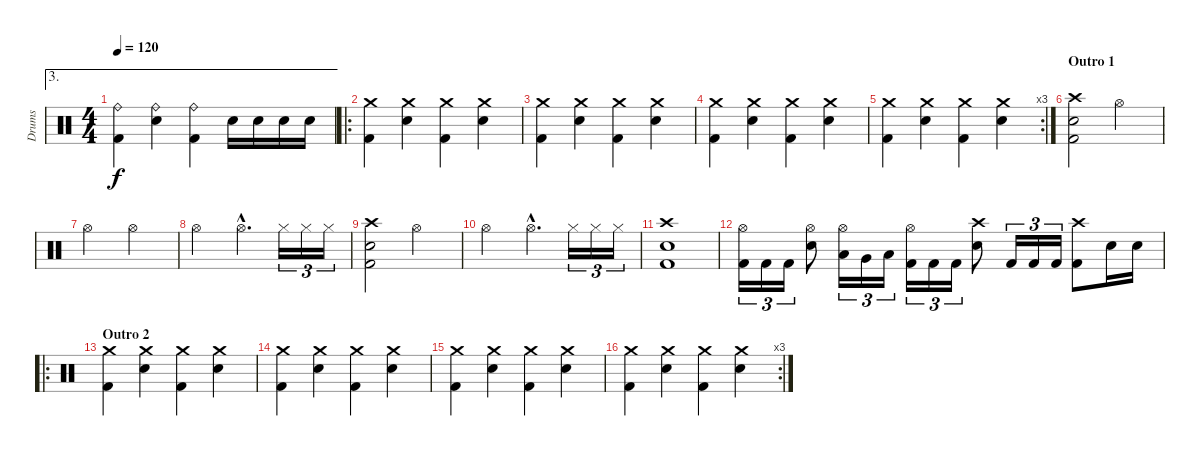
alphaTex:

\track ("Drums" "Drums") {instrument percussion}
\staff {score}
\articulation defaults
\ae 3
\ts (4 4)
\tempo 120
\clef neutral
\ks c
("Ride (bell)" "Kick (hit) 2").4{dy f} ("Ride (bell)" "Electric Snare (hit)").4 ("Ride (bell)" "Kick (hit) 2").4 "Electric Snare (hit)".16 "Electric Snare (hit)".16 "Electric Snare (hit)".16 "Electric Snare (hit)".16 |
\ro
("Crash medium (hit)" "Kick (hit) 2").4 ("Crash medium (hit)" "Electric Snare (hit)").4 ("Crash medium (hit)" "Kick (hit) 2").4 ("Crash medium (hit)" "Electric Snare (hit)").4 |
("Crash medium (hit)" "Kick (hit) 2").4 ("Crash medium (hit)" "Electric Snare (hit)").4 ("Crash medium (hit)" "Kick (hit) 2").4 ("Crash medium (hit)" "Electric Snare (hit)").4 |
("Crash medium (hit)" "Kick (hit) 2").4 ("Crash medium (hit)" "Electric Snare (hit)").4 ("Crash medium (hit)" "Kick (hit) 2").4 ("Crash medium (hit)" "Electric Snare (hit)").4 |
\rc 3
("Crash medium (hit)" "Kick (hit) 2").4 ("Crash medium (hit)" "Electric Snare (hit)").4 ("Crash medium (hit)" "Kick (hit) 2").4 ("Crash medium (hit)" "Electric Snare (hit)").4 |
\section ("" "Outro 1")
("Crash high (hit)" "Kick (hit) 2" "Electric Snare (hit)").2 "Hi-Hat (open)".2 |
"Hi-Hat (open)".2 "Hi-Hat (open)".2 |
"Hi-Hat (open)".2 "Hi-Hat (open)"{hac}.4{d} "Hi-Hat (closed)".16{tu (3 2)} "Hi-Hat (closed)".16{tu (3 2)} "Hi-Hat (closed)".16{tu (3 2)} |
("Crash high (hit)" "Kick (hit) 2" "Electric Snare (hit)").2 "Hi-Hat (open)".2 |
"Hi-Hat (open)".2 "Hi-Hat (open)"{hac}.4{d} "Hi-Hat (closed)".16{tu (3 2)} "Hi-Hat (closed)".16{tu (3 2)} "Hi-Hat (closed)".16{tu (3 2)} |
("Crash high (hit)" "Kick (hit) 2" "Electric Snare (hit)").1 |
("Hi-Hat (open)" "Kick (hit) 2").16{tu (3 2)} "Kick (hit) 2".16{tu (3 2)} "Kick (hit) 2".16{tu (3 2)} ("Hi-Hat (open)" "Electric Snare (hit)").8 ("Hi-Hat (open)" "Low Floor Tom (hit)").16{tu (3 2)} "Very Low Tom (hit)".16{tu (3 2)} "Low Floor Tom (hit)".16{tu (3 2)} ("Hi-Hat (open)" "Kick (hit) 2").16{tu (3 2)} "Kick (hit) 2".16{tu (3 2)} "Kick (hit) 2".16{tu (3 2)} ("Electric Snare (hit)" "Crash high (hit)").8 "Kick (hit) 2".16{tu (3 2)} "Kick (hit) 2".16{tu (3 2)} "Kick (hit) 2".16{tu (3 2)} ("Crash high (hit)" "Kick (hit) 2").8 "Electric Snare (hit)".16 "Electric Snare (hit)".16 |
\ro
\section ("" "Outro 2")
("Crash medium (hit)" "Kick (hit) 2").4 ("Crash medium (hit)" "Electric Snare (hit)").4 ("Crash medium (hit)" "Kick (hit) 2").4 ("Crash medium (hit)" "Electric Snare (hit)").4 |
("Crash medium (hit)" "Kick (hit) 2").4 ("Crash medium (hit)" "Electric Snare (hit)").4 ("Crash medium (hit)" "Kick (hit) 2").4 ("Crash medium (hit)" "Electric Snare (hit)").4 |
("Crash medium (hit)" "Kick (hit) 2").4 ("Crash medium (hit)" "Electric Snare (hit)").4 ("Crash medium (hit)" "Kick (hit) 2").4 ("Crash medium (hit)" "Electric Snare (hit)").4 |
\rc 3
("Crash medium (hit)" "Kick (hit) 2").4 ("Crash medium (hit)" "Electric Snare (hit)").4 ("Crash medium (hit)" "Kick (hit) 2").4 ("Crash medium (hit)" "Electric Snare (hit)").4
